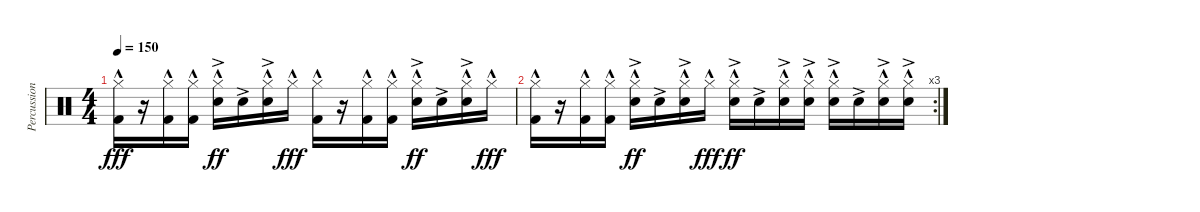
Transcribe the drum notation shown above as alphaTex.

\track ("Percussion" "Percussion") {instrument percussion bank 255}
\staff {score}
\articulation defaults
\ts (4 4)
\tempo 150
\clef neutral
\ks c
("Hi-Hat (closed)"{hac} "Kick (hit) 2"{hac}).16{dy fff} r.16 ("Hi-Hat (closed)"{hac} "Kick (hit) 2"{hac}).16 ("Hi-Hat (closed)"{hac} "Kick (hit) 2"{hac}).16 ("Hi-Hat (closed)"{hac} "Snare (hit) 2"{ac}).16{dy ff} "Snare (hit) 2"{ac}.16 ("Hi-Hat (closed)"{hac} "Snare (hit) 2"{ac}).16 "Hi-Hat (closed)"{hac}.16{dy fff} ("Hi-Hat (closed)"{hac} "Kick (hit) 2"{hac}).16 r.16 ("Hi-Hat (closed)"{hac} "Kick (hit) 2"{hac}).16 ("Hi-Hat (closed)"{hac} "Kick (hit) 2"{hac}).16 ("Hi-Hat (closed)"{hac} "Snare (hit) 2"{ac}).16{dy ff} "Snare (hit) 2"{ac}.16 ("Hi-Hat (closed)"{hac} "Snare (hit) 2"{ac}).16 "Hi-Hat (closed)"{hac}.16{dy fff} |
\rc 3
("Hi-Hat (closed)"{hac} "Kick (hit) 2"{hac}).16 r.16 ("Hi-Hat (closed)"{hac} "Kick (hit) 2"{hac}).16 ("Hi-Hat (closed)"{hac} "Kick (hit) 2"{hac}).16 ("Hi-Hat (closed)"{hac} "Snare (hit) 2"{ac}).16{dy ff} "Snare (hit) 2"{ac}.16 ("Hi-Hat (closed)"{hac} "Snare (hit) 2"{ac}).16 "Hi-Hat (closed)"{hac}.16{dy fff} ("Hi-Hat (closed)"{hac} "Snare (hit) 2"{ac}).16{dy ff} "Snare (hit) 2"{ac}.16 ("Hi-Hat (closed)"{hac} "Snare (hit) 2"{ac}).16 ("Hi-Hat (closed)"{hac} "Snare (hit) 2"{ac}).16 ("Hi-Hat (closed)"{hac} "Snare (hit) 2"{ac}).16 "Snare (hit) 2"{ac}.16 ("Hi-Hat (closed)"{hac} "Snare (hit) 2"{ac}).16 ("Hi-Hat (closed)"{hac} "Snare (hit) 2"{ac}).16
